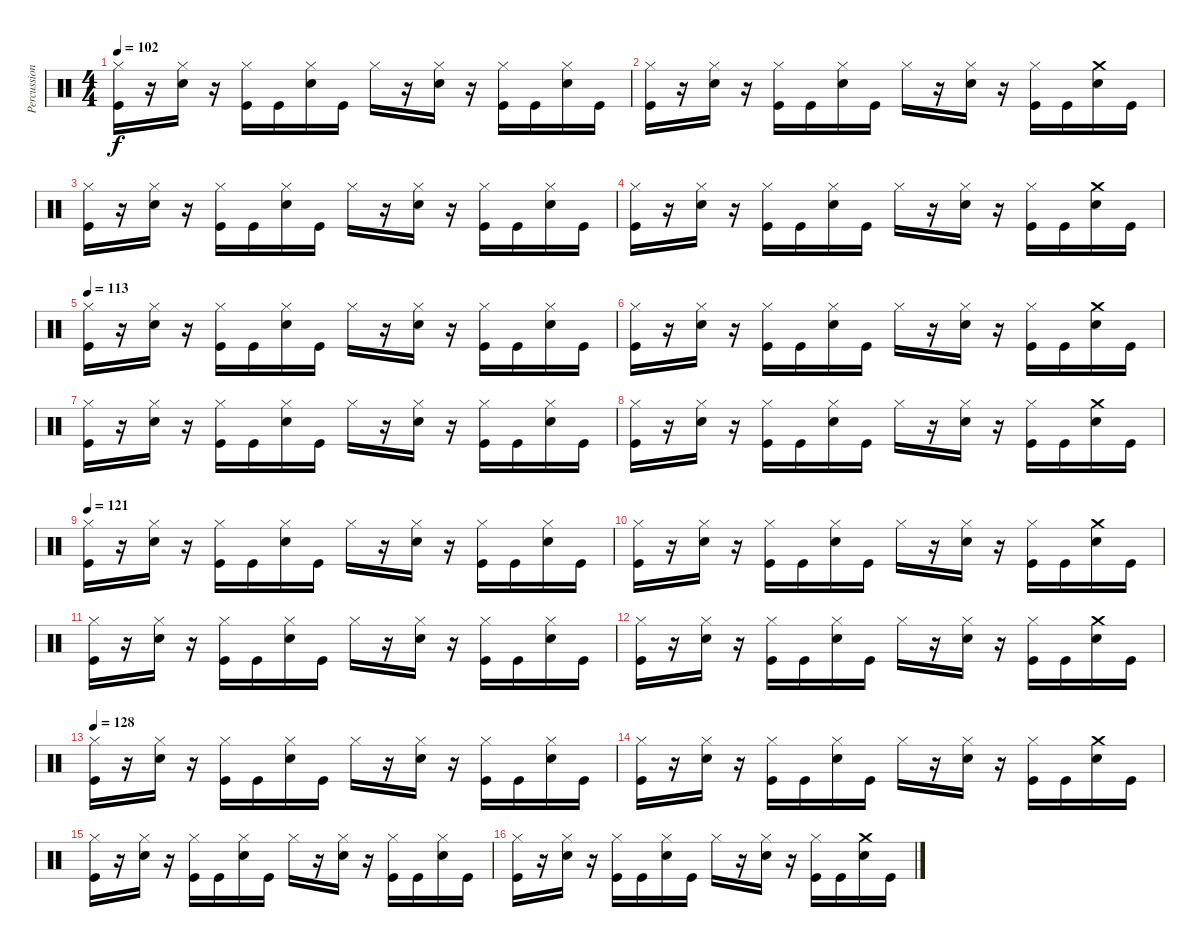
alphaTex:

\track ("Percussion" "Percussion") {instrument percussion}
\staff {score}
\articulation defaults
\ts (4 4)
\tempo 102
\clef neutral
\ks c
("Hi-Hat (closed)" "Kick (hit)").16{dy f} r.16 ("Hi-Hat (closed)" "Snare (hit) 2").16 r.16 ("Hi-Hat (closed)" "Kick (hit)").16 "Kick (hit)".16 ("Hi-Hat (closed)" "Snare (hit) 2").16 "Kick (hit)".16 "Hi-Hat (closed)".16 r.16 ("Hi-Hat (closed)" "Snare (hit) 2").16 r.16 ("Hi-Hat (closed)" "Kick (hit)").16 "Kick (hit)".16 ("Hi-Hat (closed)" "Snare (hit) 2").16 "Kick (hit)".16 |
("Hi-Hat (closed)" "Kick (hit)").16 r.16 ("Hi-Hat (closed)" "Snare (hit) 2").16 r.16 ("Hi-Hat (closed)" "Kick (hit)").16 "Kick (hit)".16 ("Hi-Hat (closed)" "Snare (hit) 2").16 "Kick (hit)".16 "Hi-Hat (closed)".16 r.16 ("Hi-Hat (closed)" "Snare (hit) 2").16 r.16 ("Hi-Hat (closed)" "Kick (hit)").16 "Kick (hit)".16 ("Crash medium (hit)" "Snare (hit) 2").16 "Kick (hit)".16 |
("Hi-Hat (closed)" "Kick (hit)").16 r.16 ("Hi-Hat (closed)" "Snare (hit) 2").16 r.16 ("Hi-Hat (closed)" "Kick (hit)").16 "Kick (hit)".16 ("Hi-Hat (closed)" "Snare (hit) 2").16 "Kick (hit)".16 "Hi-Hat (closed)".16 r.16 ("Hi-Hat (closed)" "Snare (hit) 2").16 r.16 ("Hi-Hat (closed)" "Kick (hit)").16 "Kick (hit)".16 ("Hi-Hat (closed)" "Snare (hit) 2").16 "Kick (hit)".16 |
("Hi-Hat (closed)" "Kick (hit)").16 r.16 ("Hi-Hat (closed)" "Snare (hit) 2").16 r.16 ("Hi-Hat (closed)" "Kick (hit)").16 "Kick (hit)".16 ("Hi-Hat (closed)" "Snare (hit) 2").16 "Kick (hit)".16 "Hi-Hat (closed)".16 r.16 ("Hi-Hat (closed)" "Snare (hit) 2").16 r.16 ("Hi-Hat (closed)" "Kick (hit)").16 "Kick (hit)".16 ("Crash medium (hit)" "Snare (hit) 2").16 "Kick (hit)".16 |
\tempo 113
("Hi-Hat (closed)" "Kick (hit)").16 r.16 ("Hi-Hat (closed)" "Snare (hit) 2").16 r.16 ("Hi-Hat (closed)" "Kick (hit)").16 "Kick (hit)".16 ("Hi-Hat (closed)" "Snare (hit) 2").16 "Kick (hit)".16 "Hi-Hat (closed)".16 r.16 ("Hi-Hat (closed)" "Snare (hit) 2").16 r.16 ("Hi-Hat (closed)" "Kick (hit)").16 "Kick (hit)".16 ("Hi-Hat (closed)" "Snare (hit) 2").16 "Kick (hit)".16 |
("Hi-Hat (closed)" "Kick (hit)").16 r.16 ("Hi-Hat (closed)" "Snare (hit) 2").16 r.16 ("Hi-Hat (closed)" "Kick (hit)").16 "Kick (hit)".16 ("Hi-Hat (closed)" "Snare (hit) 2").16 "Kick (hit)".16 "Hi-Hat (closed)".16 r.16 ("Hi-Hat (closed)" "Snare (hit) 2").16 r.16 ("Hi-Hat (closed)" "Kick (hit)").16 "Kick (hit)".16 ("Crash medium (hit)" "Snare (hit) 2").16 "Kick (hit)".16 |
("Hi-Hat (closed)" "Kick (hit)").16 r.16 ("Hi-Hat (closed)" "Snare (hit) 2").16 r.16 ("Hi-Hat (closed)" "Kick (hit)").16 "Kick (hit)".16 ("Hi-Hat (closed)" "Snare (hit) 2").16 "Kick (hit)".16 "Hi-Hat (closed)".16 r.16 ("Hi-Hat (closed)" "Snare (hit) 2").16 r.16 ("Hi-Hat (closed)" "Kick (hit)").16 "Kick (hit)".16 ("Hi-Hat (closed)" "Snare (hit) 2").16 "Kick (hit)".16 |
("Hi-Hat (closed)" "Kick (hit)").16 r.16 ("Hi-Hat (closed)" "Snare (hit) 2").16 r.16 ("Hi-Hat (closed)" "Kick (hit)").16 "Kick (hit)".16 ("Hi-Hat (closed)" "Snare (hit) 2").16 "Kick (hit)".16 "Hi-Hat (closed)".16 r.16 ("Hi-Hat (closed)" "Snare (hit) 2").16 r.16 ("Hi-Hat (closed)" "Kick (hit)").16 "Kick (hit)".16 ("Crash medium (hit)" "Snare (hit) 2").16 "Kick (hit)".16 |
\tempo 121
("Hi-Hat (closed)" "Kick (hit)").16 r.16 ("Hi-Hat (closed)" "Snare (hit) 2").16 r.16 ("Hi-Hat (closed)" "Kick (hit)").16 "Kick (hit)".16 ("Hi-Hat (closed)" "Snare (hit) 2").16 "Kick (hit)".16 "Hi-Hat (closed)".16 r.16 ("Hi-Hat (closed)" "Snare (hit) 2").16 r.16 ("Hi-Hat (closed)" "Kick (hit)").16 "Kick (hit)".16 ("Hi-Hat (closed)" "Snare (hit) 2").16 "Kick (hit)".16 |
("Hi-Hat (closed)" "Kick (hit)").16 r.16 ("Hi-Hat (closed)" "Snare (hit) 2").16 r.16 ("Hi-Hat (closed)" "Kick (hit)").16 "Kick (hit)".16 ("Hi-Hat (closed)" "Snare (hit) 2").16 "Kick (hit)".16 "Hi-Hat (closed)".16 r.16 ("Hi-Hat (closed)" "Snare (hit) 2").16 r.16 ("Hi-Hat (closed)" "Kick (hit)").16 "Kick (hit)".16 ("Crash medium (hit)" "Snare (hit) 2").16 "Kick (hit)".16 |
("Hi-Hat (closed)" "Kick (hit)").16 r.16 ("Hi-Hat (closed)" "Snare (hit) 2").16 r.16 ("Hi-Hat (closed)" "Kick (hit)").16 "Kick (hit)".16 ("Hi-Hat (closed)" "Snare (hit) 2").16 "Kick (hit)".16 "Hi-Hat (closed)".16 r.16 ("Hi-Hat (closed)" "Snare (hit) 2").16 r.16 ("Hi-Hat (closed)" "Kick (hit)").16 "Kick (hit)".16 ("Hi-Hat (closed)" "Snare (hit) 2").16 "Kick (hit)".16 |
("Hi-Hat (closed)" "Kick (hit)").16 r.16 ("Hi-Hat (closed)" "Snare (hit) 2").16 r.16 ("Hi-Hat (closed)" "Kick (hit)").16 "Kick (hit)".16 ("Hi-Hat (closed)" "Snare (hit) 2").16 "Kick (hit)".16 "Hi-Hat (closed)".16 r.16 ("Hi-Hat (closed)" "Snare (hit) 2").16 r.16 ("Hi-Hat (closed)" "Kick (hit)").16 "Kick (hit)".16 ("Crash medium (hit)" "Snare (hit) 2").16 "Kick (hit)".16 |
\tempo 128
("Hi-Hat (closed)" "Kick (hit)").16 r.16 ("Hi-Hat (closed)" "Snare (hit) 2").16 r.16 ("Hi-Hat (closed)" "Kick (hit)").16 "Kick (hit)".16 ("Hi-Hat (closed)" "Snare (hit) 2").16 "Kick (hit)".16 "Hi-Hat (closed)".16 r.16 ("Hi-Hat (closed)" "Snare (hit) 2").16 r.16 ("Hi-Hat (closed)" "Kick (hit)").16 "Kick (hit)".16 ("Hi-Hat (closed)" "Snare (hit) 2").16 "Kick (hit)".16 |
("Hi-Hat (closed)" "Kick (hit)").16 r.16 ("Hi-Hat (closed)" "Snare (hit) 2").16 r.16 ("Hi-Hat (closed)" "Kick (hit)").16 "Kick (hit)".16 ("Hi-Hat (closed)" "Snare (hit) 2").16 "Kick (hit)".16 "Hi-Hat (closed)".16 r.16 ("Hi-Hat (closed)" "Snare (hit) 2").16 r.16 ("Hi-Hat (closed)" "Kick (hit)").16 "Kick (hit)".16 ("Crash medium (hit)" "Snare (hit) 2").16 "Kick (hit)".16 |
("Hi-Hat (closed)" "Kick (hit)").16 r.16 ("Hi-Hat (closed)" "Snare (hit) 2").16 r.16 ("Hi-Hat (closed)" "Kick (hit)").16 "Kick (hit)".16 ("Hi-Hat (closed)" "Snare (hit) 2").16 "Kick (hit)".16 "Hi-Hat (closed)".16 r.16 ("Hi-Hat (closed)" "Snare (hit) 2").16 r.16 ("Hi-Hat (closed)" "Kick (hit)").16 "Kick (hit)".16 ("Hi-Hat (closed)" "Snare (hit) 2").16 "Kick (hit)".16 |
("Hi-Hat (closed)" "Kick (hit)").16 r.16 ("Hi-Hat (closed)" "Snare (hit) 2").16 r.16 ("Hi-Hat (closed)" "Kick (hit)").16 "Kick (hit)".16 ("Hi-Hat (closed)" "Snare (hit) 2").16 "Kick (hit)".16 "Hi-Hat (closed)".16 r.16 ("Hi-Hat (closed)" "Snare (hit) 2").16 r.16 ("Hi-Hat (closed)" "Kick (hit)").16 "Kick (hit)".16 ("Crash medium (hit)" "Snare (hit) 2").16 "Kick (hit)".16
